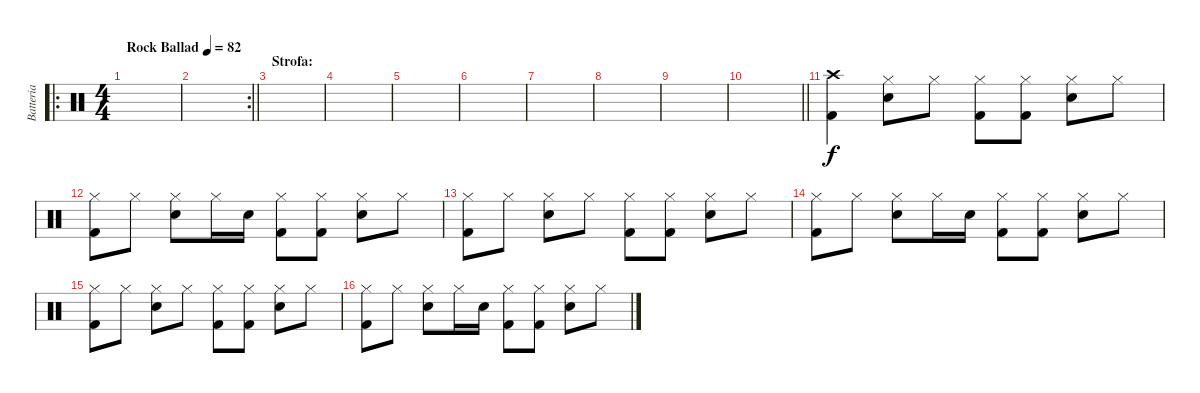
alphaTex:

\track ("Batteria" "Batteria") {instrument percussion}
\staff {score}
\articulation defaults
\ro
\ts (4 4)
\tempo (82 "Rock Ballad")
\clef neutral
\ks c
|
\rc 2
\barLineRight lightlight
|
\section ("" "Strofa:")
|
|
|
|
|
|
|
\barLineRight lightlight
|
("Crash high (hit)" "Kick (hit) 2").4 ("Hi-Hat (closed)" "Snare (hit) 2").8 "Hi-Hat (closed)".8 ("Hi-Hat (closed)" "Kick (hit) 2").8 ("Hi-Hat (closed)" "Kick (hit) 2").8 ("Hi-Hat (closed)" "Snare (hit) 2").8 "Hi-Hat (closed)".8 |
("Hi-Hat (closed)" "Kick (hit) 2").8 "Hi-Hat (closed)".8 ("Hi-Hat (closed)" "Snare (hit) 2").8 "Hi-Hat (closed)".16 "Snare (hit) 2".16 ("Hi-Hat (closed)" "Kick (hit) 2").8 ("Hi-Hat (closed)" "Kick (hit) 2").8 ("Hi-Hat (closed)" "Snare (hit) 2").8 "Hi-Hat (closed)".8 |
("Hi-Hat (closed)" "Kick (hit) 2").8 "Hi-Hat (closed)".8 ("Hi-Hat (closed)" "Snare (hit) 2").8 "Hi-Hat (closed)".8 ("Hi-Hat (closed)" "Kick (hit) 2").8 ("Hi-Hat (closed)" "Kick (hit) 2").8 ("Hi-Hat (closed)" "Snare (hit) 2").8 "Hi-Hat (closed)".8 |
("Hi-Hat (closed)" "Kick (hit) 2").8 "Hi-Hat (closed)".8 ("Hi-Hat (closed)" "Snare (hit) 2").8 "Hi-Hat (closed)".16 "Snare (hit) 2".16 ("Hi-Hat (closed)" "Kick (hit) 2").8 ("Hi-Hat (closed)" "Kick (hit) 2").8 ("Hi-Hat (closed)" "Snare (hit) 2").8 "Hi-Hat (closed)".8 |
("Hi-Hat (closed)" "Kick (hit) 2").8 "Hi-Hat (closed)".8 ("Hi-Hat (closed)" "Snare (hit) 2").8 "Hi-Hat (closed)".8 ("Hi-Hat (closed)" "Kick (hit) 2").8 ("Hi-Hat (closed)" "Kick (hit) 2").8 ("Hi-Hat (closed)" "Snare (hit) 2").8 "Hi-Hat (closed)".8 |
("Hi-Hat (closed)" "Kick (hit) 2").8 "Hi-Hat (closed)".8 ("Hi-Hat (closed)" "Snare (hit) 2").8 "Hi-Hat (closed)".16 "Snare (hit) 2".16 ("Hi-Hat (closed)" "Kick (hit) 2").8 ("Hi-Hat (closed)" "Kick (hit) 2").8 ("Hi-Hat (closed)" "Snare (hit) 2").8 "Hi-Hat (closed)".8
